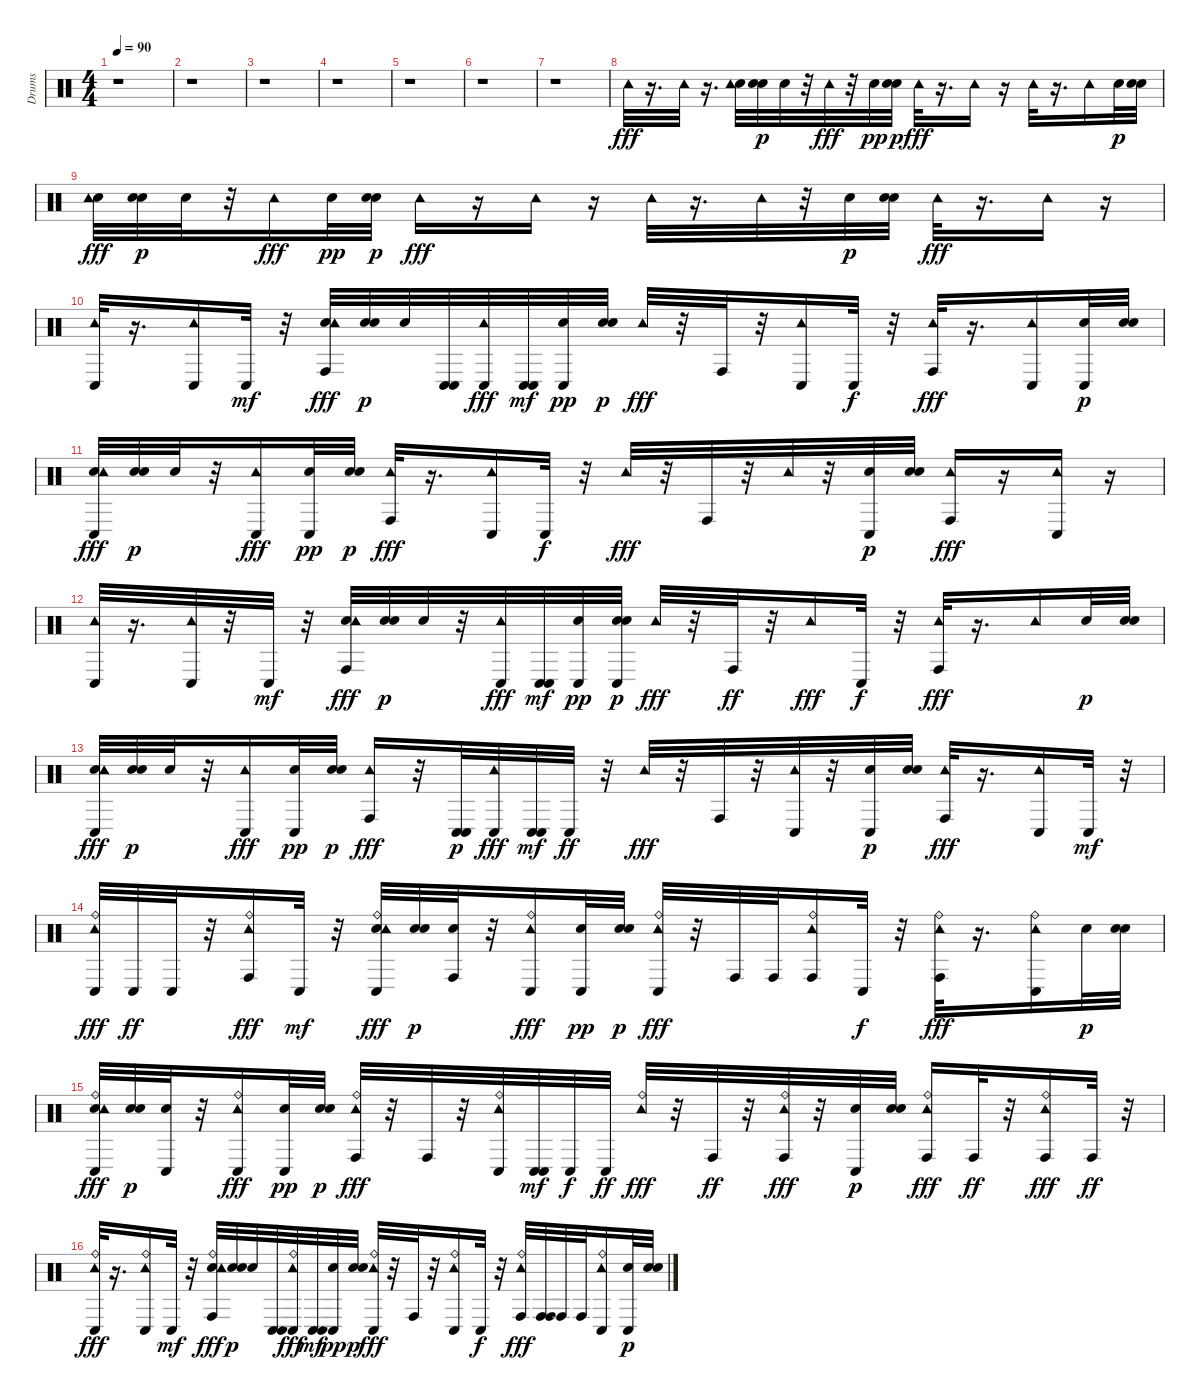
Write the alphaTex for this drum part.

\track ("Drums" "Drums") {instrument percussion}
\staff {score}
\articulation defaults
\ts (4 4)
\tempo 90
\clef neutral
\ks c
r.1{dy fff} |
r.1 |
r.1 |
r.1 |
r.1 |
r.1 |
r.1 |
"Tambourine (hit)".32 r.16{d} "Tambourine (hit)".32 r.16{d} ("Electric Snare (hit)" "Tambourine (hit)").32 ("Electric Snare (hit)" "Electric Snare (hit)").32{dy p} "Electric Snare (hit)".32 r.32 "Tambourine (hit)".32{dy fff} r.32 "Electric Snare (hit)".32{dy pp} ("Electric Snare (hit)" "Electric Snare (hit)").32{dy p} "Tambourine (hit)".32{dy fff} r.16{d} "Tambourine (hit)".16 r.16 "Tambourine (hit)".32 r.16{d} "Tambourine (hit)".16 "Electric Snare (hit)".32{dy p} ("Electric Snare (hit)" "Electric Snare (hit)").32 |
("Electric Snare (hit)" "Tambourine (hit)").32{dy fff} ("Electric Snare (hit)" "Electric Snare (hit)").32{dy p} "Electric Snare (hit)".32 r.32 "Tambourine (hit)".16{dy fff} "Electric Snare (hit)".32{dy pp} ("Electric Snare (hit)" "Electric Snare (hit)").32{dy p} "Tambourine (hit)".16{dy fff} r.16 "Tambourine (hit)".16 r.16 "Tambourine (hit)".32 r.16{d} "Tambourine (hit)".32 r.32 "Electric Snare (hit)".32{dy p} ("Electric Snare (hit)" "Electric Snare (hit)").32 "Tambourine (hit)".32{dy fff} r.16{d} "Tambourine (hit)".16 r.16 |
("Conga low (hit)" "Tambourine (hit)").32 r.16{d} ("Conga low (hit)" "Tambourine (hit)").16 "Conga low (hit)".32{dy mf} r.32 ("Conga high (hit)" "Electric Snare (hit)" "Tambourine (hit)").32{dy fff} ("Electric Snare (hit)" "Electric Snare (hit)").32{dy p} "Electric Snare (hit)".32 ("Conga low (hit)" "Conga low (hit)").32 ("Conga low (hit)" "Tambourine (hit)").32{dy fff} ("Conga low (hit)" "Conga low (hit)").32{dy mf} ("Conga low (hit)" "Electric Snare (hit)").32{dy pp} ("Electric Snare (hit)" "Electric Snare (hit)").32{dy p} "Tambourine (hit)".32{dy fff} r.32 "Conga high (hit)".32 r.32 ("Conga low (hit)" "Tambourine (hit)").16 "Conga low (hit)".32{dy f} r.32 ("Conga high (hit)" "Tambourine (hit)").32{dy fff} r.16{d} ("Conga low (hit)" "Tambourine (hit)").16 ("Conga low (hit)" "Electric Snare (hit)").32{dy p} ("Electric Snare (hit)" "Electric Snare (hit)").32 |
("Conga low (hit)" "Electric Snare (hit)" "Tambourine (hit)").32{dy fff} ("Electric Snare (hit)" "Electric Snare (hit)").32{dy p} "Electric Snare (hit)".32 r.32 ("Conga low (hit)" "Tambourine (hit)").16{dy fff} ("Conga low (hit)" "Electric Snare (hit)").32{dy pp} ("Electric Snare (hit)" "Electric Snare (hit)").32{dy p} ("Conga high (hit)" "Tambourine (hit)").32{dy fff} r.16{d} ("Conga low (hit)" "Tambourine (hit)").16 "Conga low (hit)".32{dy f} r.32 "Tambourine (hit)".32{dy fff} r.32 "Conga high (hit)".32 r.32 "Tambourine (hit)".32 r.32 ("Conga low (hit)" "Electric Snare (hit)").32{dy p} ("Electric Snare (hit)" "Electric Snare (hit)").32 ("Conga high (hit)" "Tambourine (hit)").16{dy fff} r.16 ("Conga low (hit)" "Tambourine (hit)").16 r.16 |
("Conga low (hit)" "Tambourine (hit)").32 r.16{d} ("Conga low (hit)" "Tambourine (hit)").32 r.32 "Conga low (hit)".32{dy mf} r.32 ("Conga high (hit)" "Electric Snare (hit)" "Tambourine (hit)").32{dy fff} ("Electric Snare (hit)" "Electric Snare (hit)").32{dy p} "Electric Snare (hit)".32 r.32 ("Conga low (hit)" "Tambourine (hit)").32{dy fff} ("Conga low (hit)" "Conga low (hit)").32{dy mf} ("Conga low (hit)" "Electric Snare (hit)").32{dy pp} ("Conga low (hit)" "Electric Snare (hit)" "Electric Snare (hit)").32{dy p} "Tambourine (hit)".32{dy fff} r.32 "Conga high (hit)".32{dy ff} r.32 "Tambourine (hit)".16{dy fff} "Conga low (hit)".32{dy f} r.32 ("Conga high (hit)" "Tambourine (hit)").32{dy fff} r.16{d} "Tambourine (hit)".16 "Electric Snare (hit)".32{dy p} ("Electric Snare (hit)" "Electric Snare (hit)").32 |
("Conga low (hit)" "Electric Snare (hit)" "Tambourine (hit)").32{dy fff} ("Electric Snare (hit)" "Electric Snare (hit)").32{dy p} "Electric Snare (hit)".32 r.32 ("Conga low (hit)" "Tambourine (hit)").16{dy fff} ("Conga low (hit)" "Electric Snare (hit)").32{dy pp} ("Electric Snare (hit)" "Electric Snare (hit)").32{dy p} ("Conga high (hit)" "Tambourine (hit)").16{dy fff} r.32 ("Conga low (hit)" "Conga low (hit)").32{dy p} ("Conga low (hit)" "Tambourine (hit)").32{dy fff} ("Conga low (hit)" "Conga low (hit)").32{dy mf} "Conga low (hit)".32{dy ff} r.32 "Tambourine (hit)".32{dy fff} r.32 "Conga high (hit)".32 r.32 ("Conga low (hit)" "Tambourine (hit)").32 r.32 ("Conga low (hit)" "Electric Snare (hit)").32{dy p} ("Electric Snare (hit)" "Electric Snare (hit)").32 ("Conga high (hit)" "Tambourine (hit)").32{dy fff} r.16{d} ("Conga low (hit)" "Tambourine (hit)").16 "Conga low (hit)".32{dy mf} r.32 |
("Conga low (hit)" "Ride (bell)" "Tambourine (hit)").32{dy fff} "Conga low (hit)".32{dy ff} "Conga low (hit)".32 r.32 ("Conga high (hit)" "Ride (bell)" "Tambourine (hit)").16{dy fff} "Conga low (hit)".32{dy mf} r.32 ("Conga low (hit)" "Ride (bell)" "Electric Snare (hit)" "Tambourine (hit)").32{dy fff} ("Electric Snare (hit)" "Electric Snare (hit)").32{dy p} ("Conga high (hit)" "Electric Snare (hit)").32 r.32 ("Conga low (hit)" "Ride (bell)" "Tambourine (hit)").16{dy fff} ("Conga low (hit)" "Electric Snare (hit)").32{dy pp} ("Electric Snare (hit)" "Electric Snare (hit)").32{dy p} ("Ride (bell)" "Tambourine (hit)" "Conga low (hit)").32{dy fff} r.32 "Conga high (hit)".32 "Conga high (hit)".32 ("Ride (bell)" "Tambourine (hit)" "Conga high (hit)").16 "Conga low (hit)".32{dy f} r.32 ("Conga high (hit)" "Ride (bell)" "Tambourine (hit)").32{dy fff} r.16{d} ("Conga low (hit)" "Ride (bell)" "Tambourine (hit)").16 "Electric Snare (hit)".32{dy p} ("Electric Snare (hit)" "Electric Snare (hit)").32 |
("Conga low (hit)" "Ride (bell)" "Electric Snare (hit)" "Tambourine (hit)").32{dy fff} ("Electric Snare (hit)" "Electric Snare (hit)").32{dy p} ("Conga low (hit)" "Electric Snare (hit)").32 r.32 ("Conga low (hit)" "Ride (bell)" "Tambourine (hit)").16{dy fff} ("Conga low (hit)" "Electric Snare (hit)").32{dy pp} ("Electric Snare (hit)" "Electric Snare (hit)").32{dy p} ("Conga high (hit)" "Ride (bell)" "Tambourine (hit)").32{dy fff} r.32 "Conga high (hit)".32 r.32 ("Conga low (hit)" "Ride (bell)" "Tambourine (hit)").32 ("Conga low (hit)" "Conga low (hit)").32{dy mf} "Conga low (hit)".32{dy f} "Conga low (hit)".32{dy ff} ("Ride (bell)" "Tambourine (hit)").32{dy fff} r.32 "Conga high (hit)".32{dy ff} r.32 ("Ride (bell)" "Conga high (hit)" "Tambourine (hit)").32{dy fff} r.32 ("Conga low (hit)" "Electric Snare (hit)").32{dy p} ("Electric Snare (hit)" "Electric Snare (hit)").32 ("Conga high (hit)" "Ride (bell)" "Tambourine (hit)").16{dy fff} "Conga high (hit)".32{dy ff} r.32 ("Ride (bell)" "Conga high (hit)" "Tambourine (hit)").16{dy fff} "Conga high (hit)".32{dy ff} r.32 |
("Ride (bell)" "Conga low (hit)" "Tambourine (hit)").32{dy fff} r.16{d} ("Ride (bell)" "Conga low (hit)" "Tambourine (hit)").16 "Conga low (hit)".32{dy mf} r.32 ("Ride (bell)" "Conga high (hit)" "Electric Snare (hit)" "Tambourine (hit)").32{dy fff} ("Electric Snare (hit)" "Electric Snare (hit)").32{dy p} "Electric Snare (hit)".32 ("Conga low (hit)" "Conga low (hit)").32 ("Ride (bell)" "Conga low (hit)" "Tambourine (hit)").32{dy fff} ("Conga low (hit)" "Conga low (hit)").32{dy mf} ("Conga low (hit)" "Electric Snare (hit)").32{dy pp} ("Electric Snare (hit)" "Electric Snare (hit)").32{dy p} ("Ride (bell)" "Conga low (hit)" "Tambourine (hit)").32{dy fff} r.32 "Conga high (hit)".32 r.32 ("Ride (bell)" "Conga low (hit)" "Tambourine (hit)").16 "Conga low (hit)".32{dy f} r.32 ("Ride (bell)" "Conga high (hit)" "Tambourine (hit)").32{dy fff} ("Conga high (hit)" "Conga high (hit)").32 "Conga high (hit)".32 "Conga high (hit)".32 ("Ride (bell)" "Conga low (hit)" "Tambourine (hit)").16 ("Conga low (hit)" "Electric Snare (hit)").32{dy p} ("Electric Snare (hit)" "Electric Snare (hit)").32
